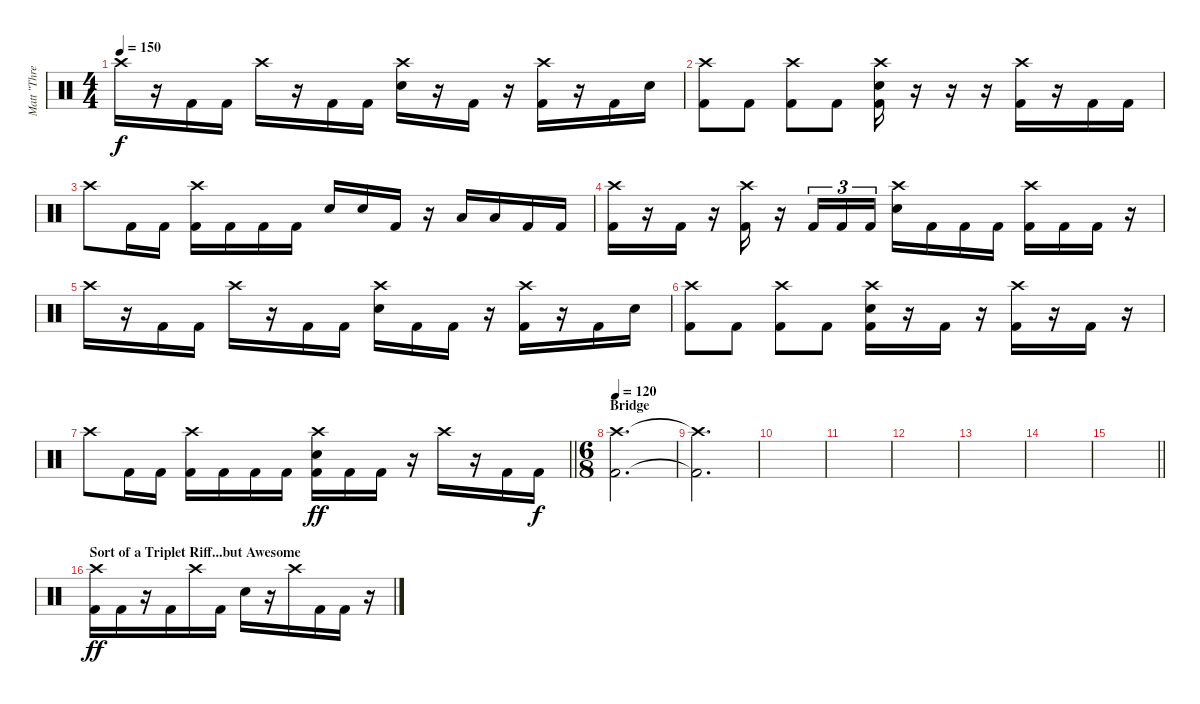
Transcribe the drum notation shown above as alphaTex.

\track ("Matt \"Three Cymbals/Swing\" Halpern" "Matt \"Thre") {instrument percussion}
\staff {score}
\articulation defaults
\ts (4 4)
\tempo 150
\clef neutral
\ks c "Crash high (hit)".16{dy f}
r.16 "Kick (hit) 2".16 "Kick (hit) 2".16 "Crash high (hit)".16 r.16 "Kick (hit) 2".16 "Kick (hit) 2".16 ("Crash high (hit)" "Snare (hit) 2").16 r.16 "Kick (hit) 2".16 r.16 ("Crash high (hit)" "Kick (hit) 2").16 r.16 "Kick (hit) 2".16 "Snare (hit) 2".16 |
("Crash high (hit)" "Kick (hit) 2").8 "Kick (hit) 2".8 ("Crash high (hit)" "Kick (hit) 2").8 "Kick (hit) 2".8 ("Crash high (hit)" "Snare (hit) 2" "Kick (hit) 2").16 r.16 r.16 r.16 ("Crash high (hit)" "Kick (hit) 2").16 r.16 "Kick (hit) 2".16 "Kick (hit) 2".16 |
"Crash high (hit)".8 "Kick (hit) 2".16 "Kick (hit) 2".16 ("Crash high (hit)" "Kick (hit) 2").16 "Kick (hit) 2".16 "Kick (hit) 2".16 "Kick (hit) 2".16 "Snare (hit) 2".16 "Snare (hit) 2".16 "Kick (hit) 2".16 r.16 "Low Floor Tom (hit)".16 "Low Floor Tom (hit)".16 "Kick (hit) 2".16 "Kick (hit) 2".16 |
("Crash high (hit)" "Kick (hit) 2").16 r.16 "Kick (hit) 2".16 r.16 ("Crash high (hit)" "Kick (hit) 2").16 r.16 "Kick (hit) 2".16{tu (3 2)} "Kick (hit) 2".16{tu (3 2)} "Kick (hit) 2".16{tu (3 2)} ("Crash high (hit)" "Snare (hit) 2").16 "Kick (hit) 2".16 "Kick (hit) 2".16 "Kick (hit) 2".16 ("Crash high (hit)" "Kick (hit) 2").16 "Kick (hit) 2".16 "Kick (hit) 2".16 r.16 |
"Crash high (hit)".16 r.16 "Kick (hit) 2".16 "Kick (hit) 2".16 "Crash high (hit)".16 r.16 "Kick (hit) 2".16 "Kick (hit) 2".16 ("Crash high (hit)" "Snare (hit) 2").16 "Kick (hit) 2".16 "Kick (hit) 2".16 r.16 ("Crash high (hit)" "Kick (hit) 2").16 r.16 "Kick (hit) 2".16 "Snare (hit) 2".16 |
("Crash high (hit)" "Kick (hit) 2").8 "Kick (hit) 2".8 ("Crash high (hit)" "Kick (hit) 2").8 "Kick (hit) 2".8 ("Crash high (hit)" "Snare (hit) 2" "Kick (hit) 2").16 r.16 "Kick (hit) 2".16 r.16 ("Crash high (hit)" "Kick (hit) 2").16 r.16 "Kick (hit) 2".16 r.16 |
\barLineRight lightlight "Crash high (hit)".8 "Kick (hit) 2".16 "Kick (hit) 2".16
("Crash high (hit)" "Kick (hit) 2").16 "Kick (hit) 2".16 "Kick (hit) 2".16 "Kick (hit) 2".16 ("Crash high (hit)" "Snare (hit) 2" "Kick (hit) 2").16{dy ff} "Kick (hit) 2".16 "Kick (hit) 2".16 r.16 "Crash high (hit)".16 r.16 "Kick (hit) 2".16 "Kick (hit) 2".16{dy f} |
\ts (6 8)
\section ("" "Bridge")
\tempo 120
("Crash high (hit)" "Kick (hit) 2").2{d} |
("Crash high (hit)"{t} "Kick (hit) 2"{t}).2{d} |
|
|
|
|
|
\barLineRight lightlight
|
\section ("" "Sort of a Triplet Riff...but Awesome")
("Crash high (hit)" "Kick (hit) 2").16{dy ff} "Kick (hit) 2".16 r.16 "Kick (hit) 2".16 "Crash high (hit)".16 "Kick (hit) 2".16 "Snare (hit) 2".16 r.16 "Crash high (hit)".16 "Kick (hit) 2".16 "Kick (hit) 2".16 r.16
